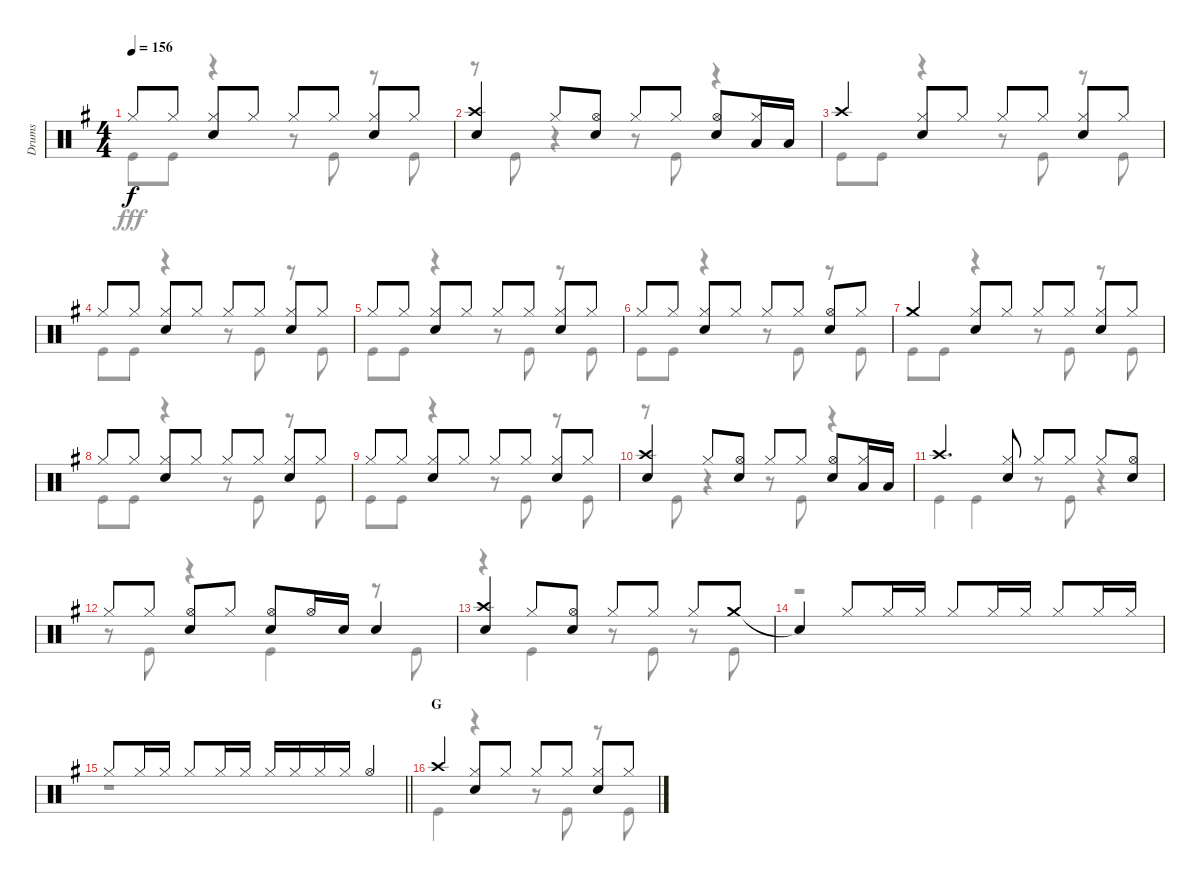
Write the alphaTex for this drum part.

\track ("Drums" "Drums") {instrument percussion}
\staff {score}
\articulation defaults
\voice
\ts (4 4)
\tempo 156
\clef neutral
\ks g "Hi-Hat (closed)".8{dy f} "Hi-Hat (closed)".8
("Hi-Hat (closed)" "Snare (hit) 2").8 "Hi-Hat (closed)".8 "Hi-Hat (closed)".8 "Hi-Hat (closed)".8 ("Hi-Hat (closed)" "Snare (hit) 2").8 "Hi-Hat (closed)".8 |
("Crash high (hit)" "Snare (hit) 2").4 "Hi-Hat (closed)".8 ("Hi-Hat (open)" "Snare (hit) 2").8 "Hi-Hat (closed)".8 "Hi-Hat (closed)".8 ("Hi-Hat (open)" "Snare (hit) 2").8 ("Hi-Hat (closed)" "Low Tom (hit)").16 "Low Tom (hit)".16 |
"Crash high (hit)".4 ("Hi-Hat (closed)" "Snare (hit) 2").8 "Hi-Hat (closed)".8 "Hi-Hat (closed)".8 "Hi-Hat (closed)".8 ("Hi-Hat (closed)" "Snare (hit) 2").8 "Hi-Hat (closed)".8 |
"Hi-Hat (closed)".8 "Hi-Hat (closed)".8 ("Hi-Hat (closed)" "Snare (hit) 2").8 "Hi-Hat (closed)".8 "Hi-Hat (closed)".8 "Hi-Hat (closed)".8 ("Hi-Hat (closed)" "Snare (hit) 2").8 "Hi-Hat (closed)".8 |
"Hi-Hat (closed)".8 "Hi-Hat (closed)".8 ("Hi-Hat (closed)" "Snare (hit) 2").8 "Hi-Hat (closed)".8 "Hi-Hat (closed)".8 "Hi-Hat (closed)".8 ("Hi-Hat (closed)" "Snare (hit) 2").8 "Hi-Hat (closed)".8 |
"Hi-Hat (closed)".8 "Hi-Hat (closed)".8 ("Hi-Hat (closed)" "Snare (hit) 2").8 "Hi-Hat (closed)".8 "Hi-Hat (closed)".8 "Hi-Hat (closed)".8 ("Hi-Hat (open)" "Snare (hit) 2").8 "Hi-Hat (closed)".8 |
"Crash medium (hit)".4 ("Hi-Hat (closed)" "Snare (hit) 2").8 "Hi-Hat (closed)".8 "Hi-Hat (closed)".8 "Hi-Hat (closed)".8 ("Hi-Hat (closed)" "Snare (hit) 2").8 "Hi-Hat (closed)".8 |
"Hi-Hat (closed)".8 "Hi-Hat (closed)".8 ("Hi-Hat (closed)" "Snare (hit) 2").8 "Hi-Hat (closed)".8 "Hi-Hat (closed)".8 "Hi-Hat (closed)".8 ("Hi-Hat (closed)" "Snare (hit) 2").8 "Hi-Hat (closed)".8 |
"Hi-Hat (closed)".8 "Hi-Hat (closed)".8 ("Hi-Hat (closed)" "Snare (hit) 2").8 "Hi-Hat (closed)".8 "Hi-Hat (closed)".8 "Hi-Hat (closed)".8 ("Hi-Hat (closed)" "Snare (hit) 2").8 "Hi-Hat (closed)".8 |
("Crash high (hit)" "Snare (hit) 2").4 "Hi-Hat (closed)".8 ("Hi-Hat (open)" "Snare (hit) 2").8 "Hi-Hat (closed)".8 "Hi-Hat (closed)".8 ("Hi-Hat (open)" "Snare (hit) 2").8 ("Hi-Hat (closed)" "Low Tom (hit)").16 "Low Tom (hit)".16 |
"Crash high (hit)".4{d} ("Hi-Hat (closed)" "Snare (hit) 2").8 "Hi-Hat (closed)".8 "Hi-Hat (closed)".8 "Hi-Hat (closed)".8 ("Hi-Hat (open)" "Snare (hit) 2").8 |
"Hi-Hat (closed)".8 "Hi-Hat (closed)".8 ("Hi-Hat (open)" "Snare (hit) 2").8 "Hi-Hat (closed)".8 ("Hi-Hat (open)" "Snare (hit) 2").8 "Hi-Hat (open)".16 "Snare (hit) 2".16 "Snare (hit) 2".4 |
("Crash high (hit)" "Snare (hit) 2").4 "Hi-Hat (closed)".8 ("Hi-Hat (open)" "Snare (hit) 2").8 "Hi-Hat (closed)".8 "Hi-Hat (closed)".8 "Hi-Hat (closed)".8 "Crash medium (hit)".8 |
"Snare (hit)"{t}.4 "Hi-Hat (closed)".8 "Hi-Hat (closed)".16 "Hi-Hat (closed)".16 "Hi-Hat (closed)".8 "Hi-Hat (closed)".16 "Hi-Hat (closed)".16 "Hi-Hat (closed)".8 "Hi-Hat (closed)".16 "Hi-Hat (closed)".16 |
\barLineRight lightlight "Hi-Hat (closed)".8 "Hi-Hat (closed)".16 "Hi-Hat (closed)".16 "Hi-Hat (closed)".8 "Hi-Hat (closed)".16 "Hi-Hat (closed)".16 "Hi-Hat (closed)".16 "Hi-Hat (closed)".16 "Hi-Hat (closed)".16 "Hi-Hat (closed)".16 "Hi-Hat (open)".4
|
\section ("" "G")
"Crash high (hit)".4 ("Hi-Hat (closed)" "Snare (hit) 2").8 "Hi-Hat (closed)".8 "Hi-Hat (closed)".8 "Hi-Hat (closed)".8 ("Hi-Hat (closed)" "Snare (hit) 2").8 "Hi-Hat (closed)".8
\voice
\clef neutral
\ottava regular
\simile none
\ks g "Kick (hit)".8{dy fff} "Kick (hit)".8
r.4 r.8 "Kick (hit)".8 r.8 "Kick (hit)".8 |
r.8 "Kick (hit)".8 r.4 r.8 "Kick (hit)".8 r.4 |
"Kick (hit)".8 "Kick (hit)".8 r.4 r.8 "Kick (hit)".8 r.8 "Kick (hit)".8 |
"Kick (hit)".8 "Kick (hit)".8 r.4 r.8 "Kick (hit)".8 r.8 "Kick (hit)".8 |
"Kick (hit)".8 "Kick (hit)".8 r.4 r.8 "Kick (hit)".8 r.8 "Kick (hit)".8 |
"Kick (hit)".8 "Kick (hit)".8 r.4 r.8 "Kick (hit)".8 r.8 "Kick (hit)".8 |
"Kick (hit)".8 "Kick (hit)".8 r.4 r.8 "Kick (hit)".8 r.8 "Kick (hit)".8 |
"Kick (hit)".8 "Kick (hit)".8 r.4 r.8 "Kick (hit)".8 r.8 "Kick (hit)".8 |
"Kick (hit)".8 "Kick (hit)".8 r.4 r.8 "Kick (hit)".8 r.8 "Kick (hit)".8 |
r.8 "Kick (hit)".8 r.4 r.8 "Kick (hit)".8 r.4 |
"Kick (hit)".4 "Kick (hit)".4 r.8 "Kick (hit)".8 r.4 |
r.8 "Kick (hit)".8 r.4 "Kick (hit)".4 r.8 "Kick (hit)".8 |
r.4 "Kick (hit)".4 r.8 "Kick (hit)".8 r.8 "Kick (hit)".8 |
r.1 |
\barLineRight lightlight
r.1 |
"Kick (hit)".4 r.4 r.8 "Kick (hit)".8 r.8 "Kick (hit)".8
